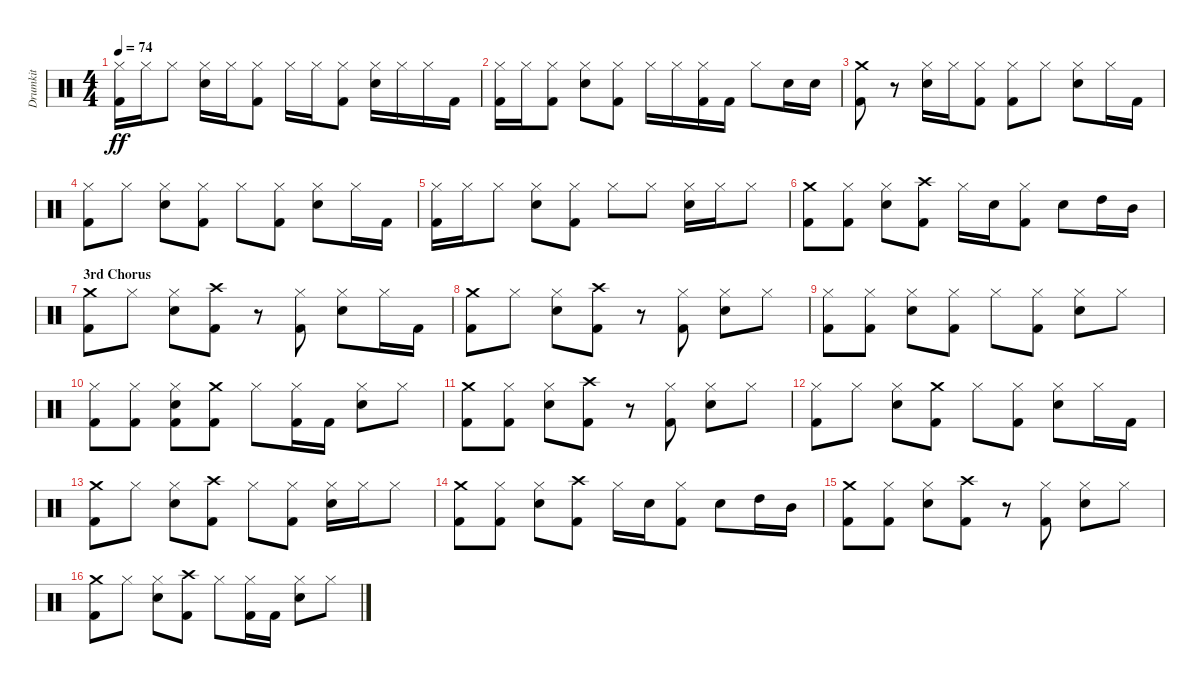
\track ("Drumkit" "Drumkit") {instrument percussion}
\staff {score}
\articulation defaults
\ts (4 4)
\tempo 74
\clef neutral
\ks c
("Hi-Hat (closed)" "Kick (hit) 2").16{dy ff} "Hi-Hat (closed)".16 "Hi-Hat (closed)".8 ("Hi-Hat (closed)" "Snare (hit) 2").16 "Hi-Hat (closed)".16 ("Hi-Hat (closed)" "Kick (hit) 2").8 "Hi-Hat (closed)".16 "Hi-Hat (closed)".16 ("Hi-Hat (closed)" "Kick (hit) 2").8 ("Hi-Hat (closed)" "Snare (hit) 2").16 "Hi-Hat (closed)".16 "Hi-Hat (closed)".16 "Kick (hit) 2".16 |
("Hi-Hat (closed)" "Kick (hit) 2").16 "Hi-Hat (closed)".16 ("Hi-Hat (closed)" "Kick (hit) 2").8 ("Hi-Hat (closed)" "Snare (hit) 2").8 ("Hi-Hat (closed)" "Kick (hit) 2").8 "Hi-Hat (closed)".16 "Hi-Hat (closed)".16 ("Hi-Hat (closed)" "Kick (hit) 2").16 "Kick (hit) 2".16 "Hi-Hat (closed)".8 "Snare (hit) 2".16 "Snare (hit) 2".16 |
("Crash medium (hit)" "Kick (hit) 2").8 r.8 ("Hi-Hat (closed)" "Snare (hit) 2").16 "Hi-Hat (closed)".16 ("Hi-Hat (closed)" "Kick (hit) 2").8 ("Hi-Hat (closed)" "Kick (hit) 2").8 "Hi-Hat (closed)".8 ("Hi-Hat (closed)" "Snare (hit) 2").8 "Hi-Hat (closed)".16 "Kick (hit) 2".16 |
("Hi-Hat (closed)" "Kick (hit) 2").8 "Hi-Hat (closed)".8 ("Hi-Hat (closed)" "Snare (hit) 2").8 ("Hi-Hat (closed)" "Kick (hit) 2").8 "Hi-Hat (closed)".8 ("Hi-Hat (closed)" "Kick (hit) 2").8 ("Hi-Hat (closed)" "Snare (hit) 2").8 "Hi-Hat (closed)".16 "Kick (hit) 2".16 |
("Hi-Hat (closed)" "Kick (hit) 2").16 "Hi-Hat (closed)".16 "Hi-Hat (closed)".8 ("Hi-Hat (closed)" "Snare (hit) 2").8 ("Hi-Hat (closed)" "Kick (hit) 2").8 "Hi-Hat (closed)".8 "Hi-Hat (closed)".8 ("Hi-Hat (closed)" "Snare (hit) 2").16 "Hi-Hat (closed)".16 "Hi-Hat (closed)".8 |
("Crash medium (hit)" "Kick (hit) 2").8 ("Hi-Hat (closed)" "Kick (hit) 2").8 ("Hi-Hat (closed)" "Snare (hit) 2").8 ("Crash high (hit)" "Kick (hit) 2").8 "Hi-Hat (closed)".16 "Snare (hit) 2".16 ("Hi-Hat (closed)" "Kick (hit) 2").8 "Snare (hit) 2".8 "High Tom (hit)".16 "Mid Tom (hit)".16 |
\section ("" "3rd Chorus")
("Crash medium (hit)" "Kick (hit) 2").8 "Hi-Hat (closed)".8 ("Hi-Hat (closed)" "Snare (hit) 2").8 ("Crash high (hit)" "Kick (hit) 2").8 r.8 ("Hi-Hat (closed)" "Kick (hit) 2").8 ("Hi-Hat (closed)" "Snare (hit) 2").8 "Hi-Hat (closed)".16 "Kick (hit) 2".16 |
("Crash medium (hit)" "Kick (hit) 2").8 "Hi-Hat (closed)".8 ("Hi-Hat (closed)" "Snare (hit) 2").8 ("Crash high (hit)" "Kick (hit) 2").8 r.8 ("Hi-Hat (closed)" "Kick (hit) 2").8 ("Hi-Hat (closed)" "Snare (hit) 2").8 "Hi-Hat (closed)".8 |
("Hi-Hat (closed)" "Kick (hit) 2").8 ("Hi-Hat (closed)" "Kick (hit) 2").8 ("Hi-Hat (closed)" "Snare (hit) 2").8 ("Hi-Hat (closed)" "Kick (hit) 2").8 "Hi-Hat (closed)".8 ("Hi-Hat (closed)" "Kick (hit) 2").8 ("Hi-Hat (closed)" "Snare (hit) 2").8 "Hi-Hat (closed)".8 |
("Hi-Hat (closed)" "Kick (hit) 2").8 ("Hi-Hat (closed)" "Kick (hit) 2").8 ("Hi-Hat (closed)" "Snare (hit) 2" "Kick (hit) 2").8 ("Crash medium (hit)" "Kick (hit) 2").8 "Hi-Hat (closed)".8 ("Hi-Hat (closed)" "Kick (hit) 2").16 "Kick (hit) 2".16 ("Hi-Hat (closed)" "Snare (hit) 2").8 "Hi-Hat (closed)".8 |
("Crash medium (hit)" "Kick (hit) 2").8 ("Hi-Hat (closed)" "Kick (hit) 2").8 ("Hi-Hat (closed)" "Snare (hit) 2").8 ("Crash high (hit)" "Kick (hit) 2").8 r.8 ("Hi-Hat (closed)" "Kick (hit) 2").8 ("Hi-Hat (closed)" "Snare (hit) 2").8 "Hi-Hat (closed)".8 |
("Hi-Hat (closed)" "Kick (hit) 2").8 "Hi-Hat (closed)".8 ("Hi-Hat (closed)" "Snare (hit) 2").8 ("Crash medium (hit)" "Kick (hit) 2").8 "Hi-Hat (closed)".8 ("Hi-Hat (closed)" "Kick (hit) 2").8 ("Hi-Hat (closed)" "Snare (hit) 2").8 "Hi-Hat (closed)".16 "Kick (hit) 2".16 |
("Crash medium (hit)" "Kick (hit) 2").8 "Hi-Hat (closed)".8 ("Hi-Hat (closed)" "Snare (hit) 2").8 ("Crash high (hit)" "Kick (hit) 2").8 "Hi-Hat (closed)".8 ("Hi-Hat (closed)" "Kick (hit) 2").8 ("Hi-Hat (closed)" "Snare (hit) 2").16 "Hi-Hat (closed)".16 "Hi-Hat (closed)".8 |
("Crash medium (hit)" "Kick (hit) 2").8 ("Hi-Hat (closed)" "Kick (hit) 2").8 ("Hi-Hat (closed)" "Snare (hit) 2").8 ("Crash high (hit)" "Kick (hit) 2").8 "Hi-Hat (closed)".16 "Snare (hit) 2".16 ("Hi-Hat (closed)" "Kick (hit) 2").8 "Snare (hit) 2".8 "High Tom (hit)".16 "Mid Tom (hit)".16 |
("Crash medium (hit)" "Kick (hit) 2").8 ("Hi-Hat (closed)" "Kick (hit) 2").8 ("Hi-Hat (closed)" "Snare (hit) 2").8 ("Crash high (hit)" "Kick (hit) 2").8 r.8 ("Hi-Hat (closed)" "Kick (hit) 2").8 ("Hi-Hat (closed)" "Snare (hit) 2").8 "Hi-Hat (closed)".8 |
("Crash medium (hit)" "Kick (hit) 2").8 "Hi-Hat (closed)".8 ("Hi-Hat (closed)" "Snare (hit) 2").8 ("Crash high (hit)" "Kick (hit) 2").8 "Hi-Hat (closed)".8 ("Hi-Hat (closed)" "Kick (hit) 2").16 "Kick (hit) 2".16 ("Hi-Hat (closed)" "Snare (hit) 2").8 "Hi-Hat (closed)".8
